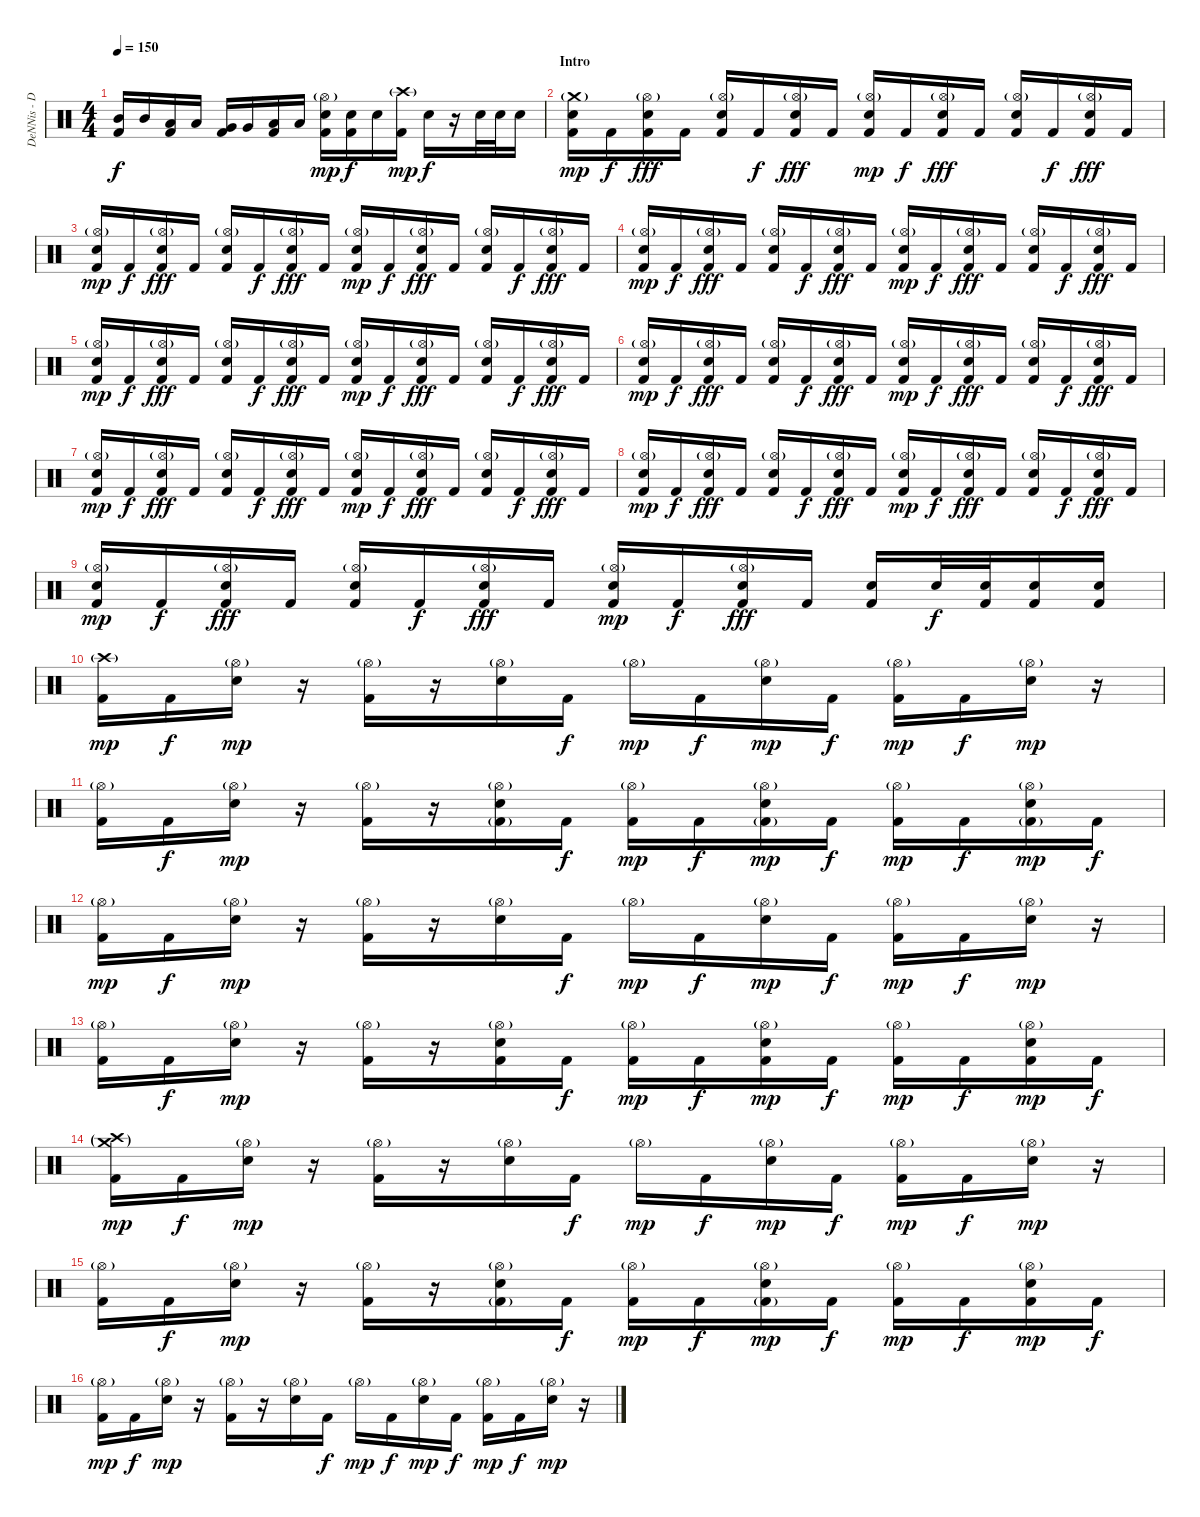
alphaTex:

\track ("DeNNis - Drums" "DeNNis - D") {instrument percussion}
\staff {score}
\articulation defaults
\ts (4 4)
\tempo 150
\clef neutral
\ks c
("Mid Tom (hit)" "Kick (hit) 2").16{dy f} "Mid Tom (hit)".16 ("Low Tom (hit)" "Kick (hit) 2").16 "Low Tom (hit)".16 ("Very Low Tom (hit)" "Kick (hit) 2").16 "Very Low Tom (hit)".16 ("Low Floor Tom (hit)" "Kick (hit) 2").16 "Low Floor Tom (hit)".16 ("Hi-Hat (open)"{g} "Electric Snare (hit)" "Kick (hit) 2").16{dy mp} ("Electric Snare (hit)" "Kick (hit) 2").16{dy f} "Electric Snare (hit)".16 ("Crash high (hit)"{g} "Kick (hit) 2").16{dy mp} "Electric Snare (hit)".16{dy f} r.16 "Electric Snare (hit)".32 "Electric Snare (hit)".32 "Electric Snare (hit)".16 |
\section ("" "Intro")
("Crash medium (hit)"{g} "Electric Snare (hit)" "Kick (hit) 2").16{dy mp} "Kick (hit) 2".16{dy f} ("Hi-Hat (open)"{g} "Electric Snare (hit)" "Kick (hit) 2").16{dy fff} "Kick (hit) 2".16 ("Hi-Hat (open)"{g} "Electric Snare (hit)" "Kick (hit) 2").16 "Kick (hit) 2".16{dy f} ("Hi-Hat (open)"{g} "Electric Snare (hit)" "Kick (hit) 2").16{dy fff} "Kick (hit) 2".16 ("Hi-Hat (open)"{g} "Electric Snare (hit)" "Kick (hit) 2").16{dy mp} "Kick (hit) 2".16{dy f} ("Hi-Hat (open)"{g} "Electric Snare (hit)" "Kick (hit) 2").16{dy fff} "Kick (hit) 2".16 ("Hi-Hat (open)"{g} "Electric Snare (hit)" "Kick (hit) 2").16 "Kick (hit) 2".16{dy f} ("Hi-Hat (open)"{g} "Electric Snare (hit)" "Kick (hit) 2").16{dy fff} "Kick (hit) 2".16 |
("Hi-Hat (open)"{g} "Electric Snare (hit)" "Kick (hit) 2").16{dy mp} "Kick (hit) 2".16{dy f} ("Hi-Hat (open)"{g} "Electric Snare (hit)" "Kick (hit) 2").16{dy fff} "Kick (hit) 2".16 ("Hi-Hat (open)"{g} "Electric Snare (hit)" "Kick (hit) 2").16 "Kick (hit) 2".16{dy f} ("Hi-Hat (open)"{g} "Electric Snare (hit)" "Kick (hit) 2").16{dy fff} "Kick (hit) 2".16 ("Hi-Hat (open)"{g} "Electric Snare (hit)" "Kick (hit) 2").16{dy mp} "Kick (hit) 2".16{dy f} ("Hi-Hat (open)"{g} "Electric Snare (hit)" "Kick (hit) 2").16{dy fff} "Kick (hit) 2".16 ("Hi-Hat (open)"{g} "Electric Snare (hit)" "Kick (hit) 2").16 "Kick (hit) 2".16{dy f} ("Hi-Hat (open)"{g} "Electric Snare (hit)" "Kick (hit) 2").16{dy fff} "Kick (hit) 2".16 |
("Hi-Hat (open)"{g} "Electric Snare (hit)" "Kick (hit) 2").16{dy mp} "Kick (hit) 2".16{dy f} ("Hi-Hat (open)"{g} "Electric Snare (hit)" "Kick (hit) 2").16{dy fff} "Kick (hit) 2".16 ("Hi-Hat (open)"{g} "Electric Snare (hit)" "Kick (hit) 2").16 "Kick (hit) 2".16{dy f} ("Hi-Hat (open)"{g} "Electric Snare (hit)" "Kick (hit) 2").16{dy fff} "Kick (hit) 2".16 ("Hi-Hat (open)"{g} "Electric Snare (hit)" "Kick (hit) 2").16{dy mp} "Kick (hit) 2".16{dy f} ("Hi-Hat (open)"{g} "Electric Snare (hit)" "Kick (hit) 2").16{dy fff} "Kick (hit) 2".16 ("Hi-Hat (open)"{g} "Electric Snare (hit)" "Kick (hit) 2").16 "Kick (hit) 2".16{dy f} ("Hi-Hat (open)"{g} "Electric Snare (hit)" "Kick (hit) 2").16{dy fff} "Kick (hit) 2".16 |
("Hi-Hat (open)"{g} "Electric Snare (hit)" "Kick (hit) 2").16{dy mp} "Kick (hit) 2".16{dy f} ("Hi-Hat (open)"{g} "Electric Snare (hit)" "Kick (hit) 2").16{dy fff} "Kick (hit) 2".16 ("Hi-Hat (open)"{g} "Electric Snare (hit)" "Kick (hit) 2").16 "Kick (hit) 2".16{dy f} ("Hi-Hat (open)"{g} "Electric Snare (hit)" "Kick (hit) 2").16{dy fff} "Kick (hit) 2".16 ("Hi-Hat (open)"{g} "Electric Snare (hit)" "Kick (hit) 2").16{dy mp} "Kick (hit) 2".16{dy f} ("Hi-Hat (open)"{g} "Electric Snare (hit)" "Kick (hit) 2").16{dy fff} "Kick (hit) 2".16 ("Hi-Hat (open)"{g} "Electric Snare (hit)" "Kick (hit) 2").16 "Kick (hit) 2".16{dy f} ("Hi-Hat (open)"{g} "Electric Snare (hit)" "Kick (hit) 2").16{dy fff} "Kick (hit) 2".16 |
("Hi-Hat (open)"{g} "Electric Snare (hit)" "Kick (hit) 2").16{dy mp} "Kick (hit) 2".16{dy f} ("Hi-Hat (open)"{g} "Electric Snare (hit)" "Kick (hit) 2").16{dy fff} "Kick (hit) 2".16 ("Hi-Hat (open)"{g} "Electric Snare (hit)" "Kick (hit) 2").16 "Kick (hit) 2".16{dy f} ("Hi-Hat (open)"{g} "Electric Snare (hit)" "Kick (hit) 2").16{dy fff} "Kick (hit) 2".16 ("Hi-Hat (open)"{g} "Electric Snare (hit)" "Kick (hit) 2").16{dy mp} "Kick (hit) 2".16{dy f} ("Hi-Hat (open)"{g} "Electric Snare (hit)" "Kick (hit) 2").16{dy fff} "Kick (hit) 2".16 ("Hi-Hat (open)"{g} "Electric Snare (hit)" "Kick (hit) 2").16 "Kick (hit) 2".16{dy f} ("Hi-Hat (open)"{g} "Electric Snare (hit)" "Kick (hit) 2").16{dy fff} "Kick (hit) 2".16 |
("Hi-Hat (open)"{g} "Electric Snare (hit)" "Kick (hit) 2").16{dy mp} "Kick (hit) 2".16{dy f} ("Hi-Hat (open)"{g} "Electric Snare (hit)" "Kick (hit) 2").16{dy fff} "Kick (hit) 2".16 ("Hi-Hat (open)"{g} "Electric Snare (hit)" "Kick (hit) 2").16 "Kick (hit) 2".16{dy f} ("Hi-Hat (open)"{g} "Electric Snare (hit)" "Kick (hit) 2").16{dy fff} "Kick (hit) 2".16 ("Hi-Hat (open)"{g} "Electric Snare (hit)" "Kick (hit) 2").16{dy mp} "Kick (hit) 2".16{dy f} ("Hi-Hat (open)"{g} "Electric Snare (hit)" "Kick (hit) 2").16{dy fff} "Kick (hit) 2".16 ("Hi-Hat (open)"{g} "Electric Snare (hit)" "Kick (hit) 2").16 "Kick (hit) 2".16{dy f} ("Hi-Hat (open)"{g} "Electric Snare (hit)" "Kick (hit) 2").16{dy fff} "Kick (hit) 2".16 |
("Hi-Hat (open)"{g} "Electric Snare (hit)" "Kick (hit) 2").16{dy mp} "Kick (hit) 2".16{dy f} ("Hi-Hat (open)"{g} "Electric Snare (hit)" "Kick (hit) 2").16{dy fff} "Kick (hit) 2".16 ("Hi-Hat (open)"{g} "Electric Snare (hit)" "Kick (hit) 2").16 "Kick (hit) 2".16{dy f} ("Hi-Hat (open)"{g} "Electric Snare (hit)" "Kick (hit) 2").16{dy fff} "Kick (hit) 2".16 ("Hi-Hat (open)"{g} "Electric Snare (hit)" "Kick (hit) 2").16{dy mp} "Kick (hit) 2".16{dy f} ("Hi-Hat (open)"{g} "Electric Snare (hit)" "Kick (hit) 2").16{dy fff} "Kick (hit) 2".16 ("Hi-Hat (open)"{g} "Electric Snare (hit)" "Kick (hit) 2").16 "Kick (hit) 2".16{dy f} ("Hi-Hat (open)"{g} "Electric Snare (hit)" "Kick (hit) 2").16{dy fff} "Kick (hit) 2".16 |
("Hi-Hat (open)"{g} "Electric Snare (hit)" "Kick (hit) 2").16{dy mp} "Kick (hit) 2".16{dy f} ("Hi-Hat (open)"{g} "Electric Snare (hit)" "Kick (hit) 2").16{dy fff} "Kick (hit) 2".16 ("Hi-Hat (open)"{g} "Electric Snare (hit)" "Kick (hit) 2").16 "Kick (hit) 2".16{dy f} ("Hi-Hat (open)"{g} "Electric Snare (hit)" "Kick (hit) 2").16{dy fff} "Kick (hit) 2".16 ("Hi-Hat (open)"{g} "Electric Snare (hit)" "Kick (hit) 2").16{dy mp} "Kick (hit) 2".16{dy f} ("Hi-Hat (open)"{g} "Electric Snare (hit)" "Kick (hit) 2").16{dy fff} "Kick (hit) 2".16 ("Electric Snare (hit)" "Kick (hit) 2").16 "Electric Snare (hit)".32{dy f} ("Electric Snare (hit)" "Kick (hit) 2").32 ("Electric Snare (hit)" "Kick (hit) 2").16 ("Electric Snare (hit)" "Kick (hit) 2").16 |
("Crash high (hit)"{g} "Kick (hit) 2").16{dy mp} "Kick (hit) 2".16{dy f} ("Hi-Hat (open)"{g} "Electric Snare (hit)").16{dy mp} r.16 ("Hi-Hat (open)"{g} "Kick (hit) 2").16 r.16 ("Hi-Hat (open)"{g} "Electric Snare (hit)").16 "Kick (hit) 2".16{dy f} "Hi-Hat (open)"{g}.16{dy mp} "Kick (hit) 2".16{dy f} ("Hi-Hat (open)"{g} "Electric Snare (hit)").16{dy mp} "Kick (hit) 2".16{dy f} ("Hi-Hat (open)"{g} "Kick (hit) 2").16{dy mp} "Kick (hit) 2".16{dy f} ("Hi-Hat (open)"{g} "Electric Snare (hit)").16{dy mp} r.16 |
("Hi-Hat (open)"{g} "Kick (hit) 2").16 "Kick (hit) 2".16{dy f} ("Hi-Hat (open)"{g} "Electric Snare (hit)").16{dy mp} r.16 ("Hi-Hat (open)"{g} "Kick (hit) 2").16 r.16 ("Hi-Hat (open)"{g} "Electric Snare (hit)" "Kick (hit) 2"{g}).16 "Kick (hit) 2".16{dy f} ("Hi-Hat (open)"{g} "Kick (hit) 2").16{dy mp} "Kick (hit) 2".16{dy f} ("Hi-Hat (open)"{g} "Electric Snare (hit)" "Kick (hit) 2"{g}).16{dy mp} "Kick (hit) 2".16{dy f} ("Hi-Hat (open)"{g} "Kick (hit) 2").16{dy mp} "Kick (hit) 2".16{dy f} ("Hi-Hat (open)"{g} "Electric Snare (hit)" "Kick (hit) 2"{g}).16{dy mp} "Kick (hit) 2".16{dy f} |
("Hi-Hat (open)"{g} "Kick (hit) 2").16{dy mp} "Kick (hit) 2".16{dy f} ("Hi-Hat (open)"{g} "Electric Snare (hit)").16{dy mp} r.16 ("Hi-Hat (open)"{g} "Kick (hit) 2").16 r.16 ("Hi-Hat (open)"{g} "Electric Snare (hit)").16 "Kick (hit) 2".16{dy f} "Hi-Hat (open)"{g}.16{dy mp} "Kick (hit) 2".16{dy f} ("Hi-Hat (open)"{g} "Electric Snare (hit)").16{dy mp} "Kick (hit) 2".16{dy f} ("Hi-Hat (open)"{g} "Kick (hit) 2").16{dy mp} "Kick (hit) 2".16{dy f} ("Hi-Hat (open)"{g} "Electric Snare (hit)").16{dy mp} r.16 |
("Hi-Hat (open)"{g} "Kick (hit) 2").16 "Kick (hit) 2".16{dy f} ("Hi-Hat (open)"{g} "Electric Snare (hit)").16{dy mp} r.16 ("Hi-Hat (open)"{g} "Kick (hit) 2").16 r.16 ("Hi-Hat (open)"{g} "Electric Snare (hit)" "Kick (hit) 2").16 "Kick (hit) 2".16{dy f} ("Hi-Hat (open)"{g} "Kick (hit) 2").16{dy mp} "Kick (hit) 2".16{dy f} ("Hi-Hat (open)"{g} "Electric Snare (hit)" "Kick (hit) 2").16{dy mp} "Kick (hit) 2".16{dy f} ("Hi-Hat (open)"{g} "Kick (hit) 2").16{dy mp} "Kick (hit) 2".16{dy f} ("Hi-Hat (open)"{g} "Electric Snare (hit)" "Kick (hit) 2").16{dy mp} "Kick (hit) 2".16{dy f} |
("Crash medium (hit)"{g} "Crash high (hit)"{g} "Kick (hit) 2").16{dy mp} "Kick (hit) 2".16{dy f} ("Hi-Hat (open)"{g} "Electric Snare (hit)").16{dy mp} r.16 ("Hi-Hat (open)"{g} "Kick (hit) 2").16 r.16 ("Hi-Hat (open)"{g} "Electric Snare (hit)").16 "Kick (hit) 2".16{dy f} "Hi-Hat (open)"{g}.16{dy mp} "Kick (hit) 2".16{dy f} ("Hi-Hat (open)"{g} "Electric Snare (hit)").16{dy mp} "Kick (hit) 2".16{dy f} ("Hi-Hat (open)"{g} "Kick (hit) 2").16{dy mp} "Kick (hit) 2".16{dy f} ("Hi-Hat (open)"{g} "Electric Snare (hit)").16{dy mp} r.16 |
("Hi-Hat (open)"{g} "Kick (hit) 2").16 "Kick (hit) 2".16{dy f} ("Hi-Hat (open)"{g} "Electric Snare (hit)").16{dy mp} r.16 ("Hi-Hat (open)"{g} "Kick (hit) 2").16 r.16 ("Hi-Hat (open)"{g} "Electric Snare (hit)" "Kick (hit) 2"{g}).16 "Kick (hit) 2".16{dy f} ("Hi-Hat (open)"{g} "Kick (hit) 2").16{dy mp} "Kick (hit) 2".16{dy f} ("Hi-Hat (open)"{g} "Electric Snare (hit)" "Kick (hit) 2"{g}).16{dy mp} "Kick (hit) 2".16{dy f} ("Hi-Hat (open)"{g} "Kick (hit) 2").16{dy mp} "Kick (hit) 2".16{dy f} ("Hi-Hat (open)"{g} "Electric Snare (hit)" "Kick (hit) 2").16{dy mp} "Kick (hit) 2".16{dy f} |
("Hi-Hat (open)"{g} "Kick (hit) 2").16{dy mp} "Kick (hit) 2".16{dy f} ("Hi-Hat (open)"{g} "Electric Snare (hit)").16{dy mp} r.16 ("Hi-Hat (open)"{g} "Kick (hit) 2").16 r.16 ("Hi-Hat (open)"{g} "Electric Snare (hit)").16 "Kick (hit) 2".16{dy f} "Hi-Hat (open)"{g}.16{dy mp} "Kick (hit) 2".16{dy f} ("Hi-Hat (open)"{g} "Electric Snare (hit)").16{dy mp} "Kick (hit) 2".16{dy f} ("Hi-Hat (open)"{g} "Kick (hit) 2").16{dy mp} "Kick (hit) 2".16{dy f} ("Hi-Hat (open)"{g} "Electric Snare (hit)").16{dy mp} r.16
